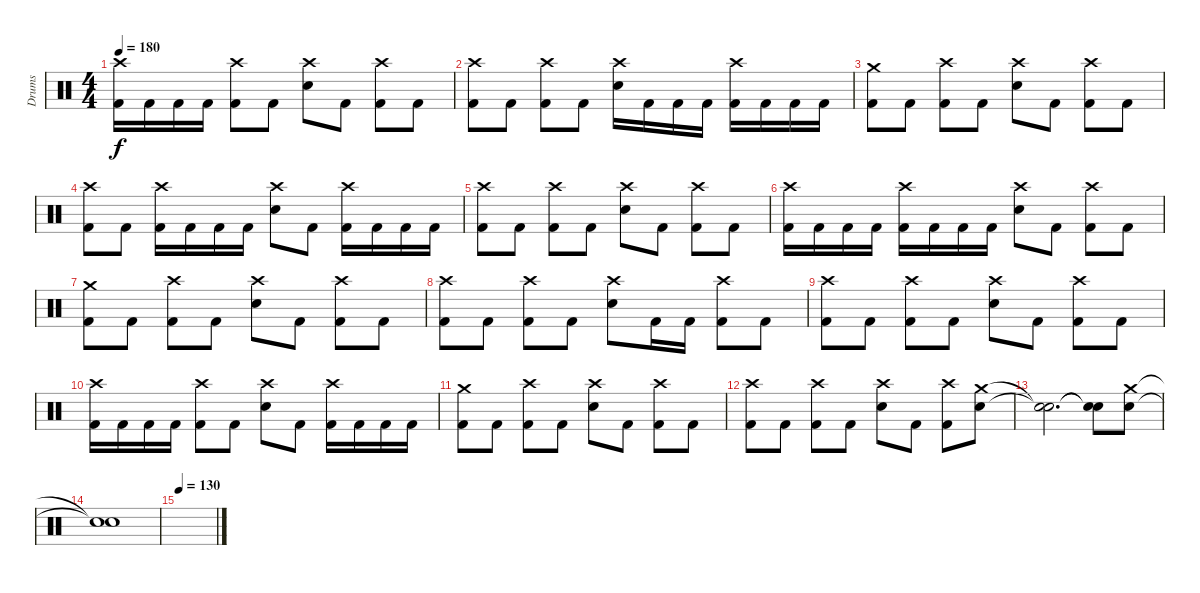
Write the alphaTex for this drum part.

\track ("Drums" "Drums") {instrument percussion}
\staff {score}
\articulation defaults
\ts (4 4)
\tempo 180
\clef neutral
\ks c
("Kick (hit) 2" "Crash high (hit)").16{dy f} "Kick (hit) 2".16 "Kick (hit) 2".16 "Kick (hit) 2".16 ("Kick (hit) 2" "Crash high (hit)").8 "Kick (hit) 2".8 ("Crash high (hit)" "Snare (hit) 2").8 "Kick (hit) 2".8 ("Kick (hit) 2" "Crash high (hit)").8 "Kick (hit) 2".8 |
("Kick (hit) 2" "Crash high (hit)").8 "Kick (hit) 2".8 ("Kick (hit) 2" "Crash high (hit)").8 "Kick (hit) 2".8 ("Crash high (hit)" "Snare (hit) 2").16 "Kick (hit) 2".16 "Kick (hit) 2".16 "Kick (hit) 2".16 ("Kick (hit) 2" "Crash high (hit)").16 "Kick (hit) 2".16 "Kick (hit) 2".16 "Kick (hit) 2".16 |
("Kick (hit) 2" "Crash medium (hit)").8 "Kick (hit) 2".8 ("Kick (hit) 2" "Crash high (hit)").8 "Kick (hit) 2".8 ("Crash high (hit)" "Snare (hit) 2").8 "Kick (hit) 2".8 ("Kick (hit) 2" "Crash high (hit)").8 "Kick (hit) 2".8 |
("Kick (hit) 2" "Crash high (hit)").8 "Kick (hit) 2".8 ("Kick (hit) 2" "Crash high (hit)").16 "Kick (hit) 2".16 "Kick (hit) 2".16 "Kick (hit) 2".16 ("Crash high (hit)" "Snare (hit) 2").8 "Kick (hit) 2".8 ("Kick (hit) 2" "Crash high (hit)").16 "Kick (hit) 2".16 "Kick (hit) 2".16 "Kick (hit) 2".16 |
("Kick (hit) 2" "Crash high (hit)").8 "Kick (hit) 2".8 ("Kick (hit) 2" "Crash high (hit)").8 "Kick (hit) 2".8 ("Crash high (hit)" "Snare (hit) 2").8 "Kick (hit) 2".8 ("Kick (hit) 2" "Crash high (hit)").8 "Kick (hit) 2".8 |
("Kick (hit) 2" "Crash high (hit)").16 "Kick (hit) 2".16 "Kick (hit) 2".16 "Kick (hit) 2".16 ("Kick (hit) 2" "Crash high (hit)").16 "Kick (hit) 2".16 "Kick (hit) 2".16 "Kick (hit) 2".16 ("Crash high (hit)" "Snare (hit) 2").8 "Kick (hit) 2".8 ("Kick (hit) 2" "Crash high (hit)").8 "Kick (hit) 2".8 |
("Kick (hit) 2" "Crash medium (hit)").8 "Kick (hit) 2".8 ("Kick (hit) 2" "Crash high (hit)").8 "Kick (hit) 2".8 ("Crash high (hit)" "Snare (hit) 2").8 "Kick (hit) 2".8 ("Kick (hit) 2" "Crash high (hit)").8 "Kick (hit) 2".8 |
("Kick (hit) 2" "Crash high (hit)").8 "Kick (hit) 2".8 ("Kick (hit) 2" "Crash high (hit)").8 "Kick (hit) 2".8 ("Crash high (hit)" "Snare (hit) 2").8 "Kick (hit) 2".16 "Kick (hit) 2".16 ("Kick (hit) 2" "Crash high (hit)").8 "Kick (hit) 2".8 |
("Kick (hit) 2" "Crash high (hit)").8 "Kick (hit) 2".8 ("Kick (hit) 2" "Crash high (hit)").8 "Kick (hit) 2".8 ("Crash high (hit)" "Snare (hit) 2").8 "Kick (hit) 2".8 ("Kick (hit) 2" "Crash high (hit)").8 "Kick (hit) 2".8 |
("Kick (hit) 2" "Crash high (hit)").16 "Kick (hit) 2".16 "Kick (hit) 2".16 "Kick (hit) 2".16 ("Kick (hit) 2" "Crash high (hit)").8 "Kick (hit) 2".8 ("Crash high (hit)" "Snare (hit) 2").8 "Kick (hit) 2".8 ("Kick (hit) 2" "Crash high (hit)").16 "Kick (hit) 2".16 "Kick (hit) 2".16 "Kick (hit) 2".16 |
("Kick (hit) 2" "Crash medium (hit)").8 "Kick (hit) 2".8 ("Kick (hit) 2" "Crash high (hit)").8 "Kick (hit) 2".8 ("Crash high (hit)" "Snare (hit) 2").8 "Kick (hit) 2".8 ("Kick (hit) 2" "Crash high (hit)").8 "Kick (hit) 2".8 |
("Kick (hit) 2" "Crash high (hit)").8 "Kick (hit) 2".8 ("Kick (hit) 2" "Crash high (hit)").8 "Kick (hit) 2".8 ("Crash high (hit)" "Snare (hit) 2").8 "Kick (hit) 2".8 ("Kick (hit) 2" "Crash high (hit)").8 ("Crash medium (hit)" "Snare (hit) 2").8 |
("Snare (hit)"{t} "Snare (hit)"{t}).2{d} ("Snare (hit)"{t} "Snare (hit)"{t}).8 ("Crash medium (hit)" "Snare (hit) 2").8 |
("Snare (hit)"{t} "Snare (hit)"{t}).1 |
\tempo 130
